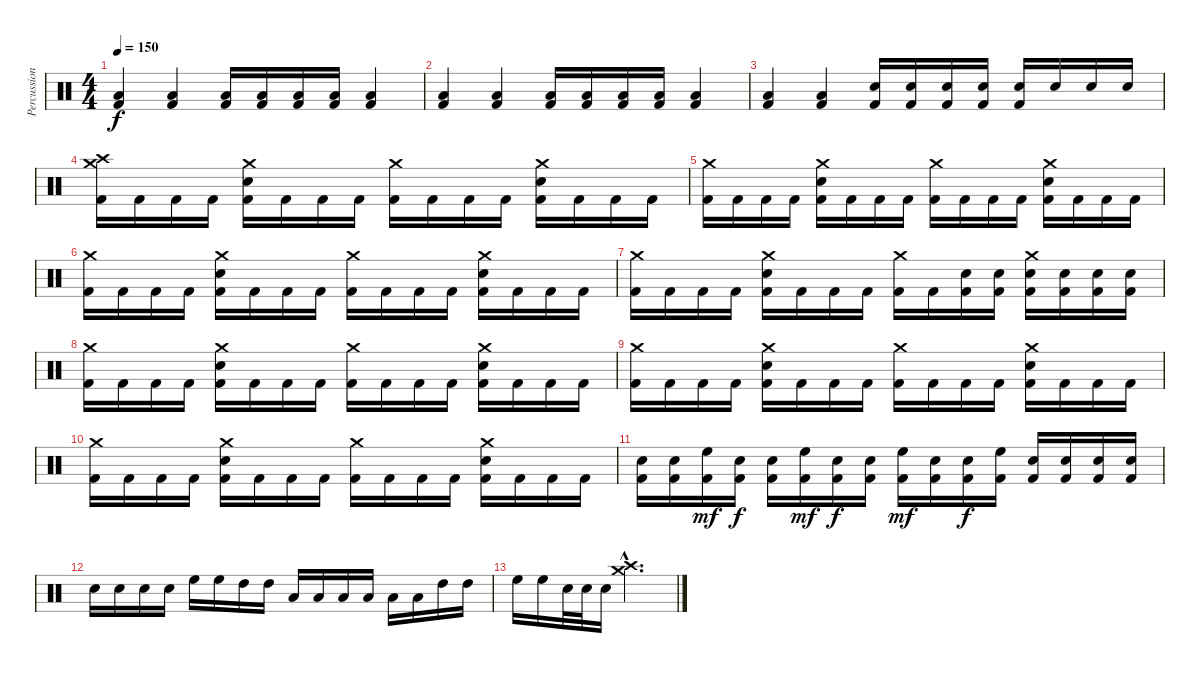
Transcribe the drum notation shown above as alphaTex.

\track ("Percussion" "Percussion") {instrument percussion}
\staff {score}
\articulation defaults
\ts (4 4)
\tempo 150
\clef neutral
\ks c
("Low Floor Tom (hit)" "Kick (hit) 2").4{dy f} ("Low Floor Tom (hit)" "Kick (hit) 2").4 ("Low Floor Tom (hit)" "Kick (hit) 2").16 ("Low Floor Tom (hit)" "Kick (hit) 2").16 ("Low Floor Tom (hit)" "Kick (hit) 2").16 ("Low Floor Tom (hit)" "Kick (hit) 2").16 ("Low Floor Tom (hit)" "Kick (hit) 2").4 |
("Low Floor Tom (hit)" "Kick (hit) 2").4 ("Low Floor Tom (hit)" "Kick (hit) 2").4 ("Low Floor Tom (hit)" "Kick (hit) 2").16 ("Low Floor Tom (hit)" "Kick (hit) 2").16 ("Low Floor Tom (hit)" "Kick (hit) 2").16 ("Low Floor Tom (hit)" "Kick (hit) 2").16 ("Low Floor Tom (hit)" "Kick (hit) 2").4 |
("Low Floor Tom (hit)" "Kick (hit) 2").4 ("Low Floor Tom (hit)" "Kick (hit) 2").4 ("Electric Snare (hit)" "Kick (hit) 2").16 ("Electric Snare (hit)" "Kick (hit) 2").16 ("Electric Snare (hit)" "Kick (hit) 2").16 ("Electric Snare (hit)" "Kick (hit) 2").16 ("Electric Snare (hit)" "Kick (hit) 2").16 "Electric Snare (hit)".16 "Electric Snare (hit)".16 "Electric Snare (hit)".16 |
("Crash high (hit)" "Crash medium (hit)" "Kick (hit) 2").16 "Kick (hit) 2".16 "Kick (hit) 2".16 "Kick (hit) 2".16 ("Crash medium (hit)" "Electric Snare (hit)" "Kick (hit) 2").16 "Kick (hit) 2".16 "Kick (hit) 2".16 "Kick (hit) 2".16 ("Crash medium (hit)" "Kick (hit) 2").16 "Kick (hit) 2".16 "Kick (hit) 2".16 "Kick (hit) 2".16 ("Crash medium (hit)" "Electric Snare (hit)" "Kick (hit) 2").16 "Kick (hit) 2".16 "Kick (hit) 2".16 "Kick (hit) 2".16 |
("Crash medium (hit)" "Kick (hit) 2").16 "Kick (hit) 2".16 "Kick (hit) 2".16 "Kick (hit) 2".16 ("Crash medium (hit)" "Electric Snare (hit)" "Kick (hit) 2").16 "Kick (hit) 2".16 "Kick (hit) 2".16 "Kick (hit) 2".16 ("Crash medium (hit)" "Kick (hit) 2").16 "Kick (hit) 2".16 "Kick (hit) 2".16 "Kick (hit) 2".16 ("Crash medium (hit)" "Electric Snare (hit)" "Kick (hit) 2").16 "Kick (hit) 2".16 "Kick (hit) 2".16 "Kick (hit) 2".16 |
("Crash medium (hit)" "Kick (hit) 2").16 "Kick (hit) 2".16 "Kick (hit) 2".16 "Kick (hit) 2".16 ("Crash medium (hit)" "Electric Snare (hit)" "Kick (hit) 2").16 "Kick (hit) 2".16 "Kick (hit) 2".16 "Kick (hit) 2".16 ("Crash medium (hit)" "Kick (hit) 2").16 "Kick (hit) 2".16 "Kick (hit) 2".16 "Kick (hit) 2".16 ("Crash medium (hit)" "Electric Snare (hit)" "Kick (hit) 2").16 "Kick (hit) 2".16 "Kick (hit) 2".16 "Kick (hit) 2".16 |
("Crash medium (hit)" "Kick (hit) 2").16 "Kick (hit) 2".16 "Kick (hit) 2".16 "Kick (hit) 2".16 ("Crash medium (hit)" "Electric Snare (hit)" "Kick (hit) 2").16 "Kick (hit) 2".16 "Kick (hit) 2".16 "Kick (hit) 2".16 ("Crash medium (hit)" "Kick (hit) 2").16 "Kick (hit) 2".16 ("Electric Snare (hit)" "Kick (hit) 2").16 ("Electric Snare (hit)" "Kick (hit) 2").16 ("Crash medium (hit)" "Electric Snare (hit)" "Kick (hit) 2").16 ("Electric Snare (hit)" "Kick (hit) 2").16 ("Electric Snare (hit)" "Kick (hit) 2").16 ("Electric Snare (hit)" "Kick (hit) 2").16 |
("Crash medium (hit)" "Kick (hit) 2").16 "Kick (hit) 2".16 "Kick (hit) 2".16 "Kick (hit) 2".16 ("Crash medium (hit)" "Electric Snare (hit)" "Kick (hit) 2").16 "Kick (hit) 2".16 "Kick (hit) 2".16 "Kick (hit) 2".16 ("Crash medium (hit)" "Kick (hit) 2").16 "Kick (hit) 2".16 "Kick (hit) 2".16 "Kick (hit) 2".16 ("Crash medium (hit)" "Electric Snare (hit)" "Kick (hit) 2").16 "Kick (hit) 2".16 "Kick (hit) 2".16 "Kick (hit) 2".16 |
("Crash medium (hit)" "Kick (hit) 2").16 "Kick (hit) 2".16 "Kick (hit) 2".16 "Kick (hit) 2".16 ("Crash medium (hit)" "Electric Snare (hit)" "Kick (hit) 2").16 "Kick (hit) 2".16 "Kick (hit) 2".16 "Kick (hit) 2".16 ("Crash medium (hit)" "Kick (hit) 2").16 "Kick (hit) 2".16 "Kick (hit) 2".16 "Kick (hit) 2".16 ("Crash medium (hit)" "Electric Snare (hit)" "Kick (hit) 2").16 "Kick (hit) 2".16 "Kick (hit) 2".16 "Kick (hit) 2".16 |
("Crash medium (hit)" "Kick (hit) 2").16 "Kick (hit) 2".16 "Kick (hit) 2".16 "Kick (hit) 2".16 ("Crash medium (hit)" "Electric Snare (hit)" "Kick (hit) 2").16 "Kick (hit) 2".16 "Kick (hit) 2".16 "Kick (hit) 2".16 ("Crash medium (hit)" "Kick (hit) 2").16 "Kick (hit) 2".16 "Kick (hit) 2".16 "Kick (hit) 2".16 ("Crash medium (hit)" "Electric Snare (hit)" "Kick (hit) 2").16 "Kick (hit) 2".16 "Kick (hit) 2".16 "Kick (hit) 2".16 |
("Electric Snare (hit)" "Kick (hit) 2").16 ("Electric Snare (hit)" "Kick (hit) 2").16 ("High Floor Tom (hit)" "Kick (hit) 2").16{dy mf} ("Electric Snare (hit)" "Kick (hit) 2").16{dy f} ("Electric Snare (hit)" "Kick (hit) 2").16 ("High Floor Tom (hit)" "Kick (hit) 2").16{dy mf} ("Electric Snare (hit)" "Kick (hit) 2").16{dy f} ("Electric Snare (hit)" "Kick (hit) 2").16 ("High Floor Tom (hit)" "Kick (hit) 2").16{dy mf} ("Electric Snare (hit)" "Kick (hit) 2").16 ("Electric Snare (hit)" "Kick (hit) 2").16{dy f} ("High Floor Tom (hit)" "Kick (hit) 2").16 ("Electric Snare (hit)" "Kick (hit) 2").16 ("Electric Snare (hit)" "Kick (hit) 2").16 ("Electric Snare (hit)" "Kick (hit) 2").16 ("Electric Snare (hit)" "Kick (hit) 2").16 |
"Electric Snare (hit)".16 "Electric Snare (hit)".16 "Electric Snare (hit)".16 "Electric Snare (hit)".16 "High Floor Tom (hit)".16 "High Floor Tom (hit)".16 "High Tom (hit)".16 "High Tom (hit)".16 "Low Tom (hit)".16 "Low Tom (hit)".16 "Low Floor Tom (hit)".16 "Low Floor Tom (hit)".16 "Low Tom (hit)".16 "Low Tom (hit)".16 "High Tom (hit)".16 "High Tom (hit)".16 |
"High Floor Tom (hit)".16 "High Floor Tom (hit)".16 "Electric Snare (hit)".32 "Electric Snare (hit)".32 "Electric Snare (hit)".16 ("Crash high (hit)"{hac} "Crash medium (hit)"{hac}).2{d}
